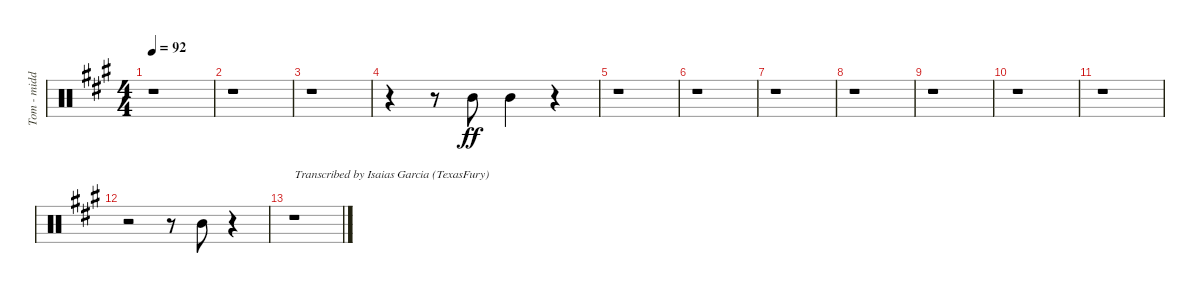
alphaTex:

\track ("Tom - middle" "Tom - midd") {instrument percussion}
\staff {score}
\articulation defaults
\ts (4 4)
\tempo 92
\clef neutral
\ks f#minor
r.1{dy f} |
r.1 |
r.1 |
r.4{beam merge} r.8 "Mid Tom (hit)".8{dy ff} "Mid Tom (hit)".4 r.4 |
r.1 |
r.1 |
r.1 |
r.1 |
r.1 |
r.1 |
r.1 |
r.2 r.8 "Mid Tom (hit)".8 r.4 |
r.1{txt "Transcribed by Isaias Garcia (TexasFury)"}
